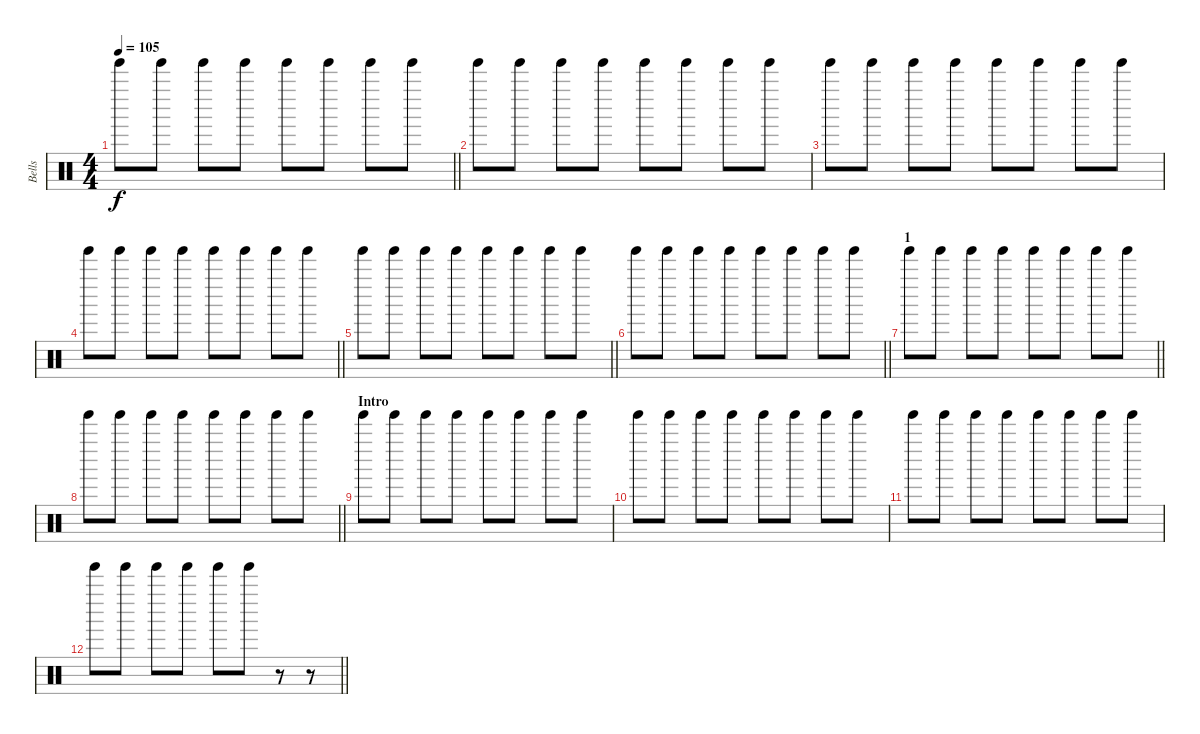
\track ("Bells" "Bells") {instrument percussion}
\staff {score}
\articulation defaults
\ts (4 4)
\tempo 105
\clef neutral
\barLineRight lightlight
\ks c "Tinkle Bell (hit)".8{dy f} "Tinkle Bell (hit)".8 "Tinkle Bell (hit)".8 "Tinkle Bell (hit)".8 "Tinkle Bell (hit)".8 "Tinkle Bell (hit)".8 "Tinkle Bell (hit)".8 "Tinkle Bell (hit)".8
|
"Tinkle Bell (hit)".8 "Tinkle Bell (hit)".8 "Tinkle Bell (hit)".8 "Tinkle Bell (hit)".8 "Tinkle Bell (hit)".8 "Tinkle Bell (hit)".8 "Tinkle Bell (hit)".8 "Tinkle Bell (hit)".8 |
"Tinkle Bell (hit)".8 "Tinkle Bell (hit)".8 "Tinkle Bell (hit)".8 "Tinkle Bell (hit)".8 "Tinkle Bell (hit)".8 "Tinkle Bell (hit)".8 "Tinkle Bell (hit)".8 "Tinkle Bell (hit)".8 |
\barLineRight lightlight "Tinkle Bell (hit)".8 "Tinkle Bell (hit)".8 "Tinkle Bell (hit)".8 "Tinkle Bell (hit)".8 "Tinkle Bell (hit)".8 "Tinkle Bell (hit)".8 "Tinkle Bell (hit)".8 "Tinkle Bell (hit)".8
|
\barLineRight lightlight "Tinkle Bell (hit)".8 "Tinkle Bell (hit)".8 "Tinkle Bell (hit)".8 "Tinkle Bell (hit)".8 "Tinkle Bell (hit)".8 "Tinkle Bell (hit)".8 "Tinkle Bell (hit)".8 "Tinkle Bell (hit)".8
|
\barLineRight lightlight "Tinkle Bell (hit)".8 "Tinkle Bell (hit)".8 "Tinkle Bell (hit)".8 "Tinkle Bell (hit)".8 "Tinkle Bell (hit)".8 "Tinkle Bell (hit)".8 "Tinkle Bell (hit)".8 "Tinkle Bell (hit)".8
|
\section ("" "1")
\barLineRight lightlight "Tinkle Bell (hit)".8 "Tinkle Bell (hit)".8 "Tinkle Bell (hit)".8 "Tinkle Bell (hit)".8 "Tinkle Bell (hit)".8 "Tinkle Bell (hit)".8 "Tinkle Bell (hit)".8 "Tinkle Bell (hit)".8
|
\barLineRight lightlight "Tinkle Bell (hit)".8 "Tinkle Bell (hit)".8 "Tinkle Bell (hit)".8 "Tinkle Bell (hit)".8 "Tinkle Bell (hit)".8 "Tinkle Bell (hit)".8 "Tinkle Bell (hit)".8 "Tinkle Bell (hit)".8
|
\section ("" "Intro")
"Tinkle Bell (hit)".8 "Tinkle Bell (hit)".8 "Tinkle Bell (hit)".8 "Tinkle Bell (hit)".8 "Tinkle Bell (hit)".8 "Tinkle Bell (hit)".8 "Tinkle Bell (hit)".8 "Tinkle Bell (hit)".8 |
"Tinkle Bell (hit)".8 "Tinkle Bell (hit)".8 "Tinkle Bell (hit)".8 "Tinkle Bell (hit)".8 "Tinkle Bell (hit)".8 "Tinkle Bell (hit)".8 "Tinkle Bell (hit)".8 "Tinkle Bell (hit)".8 |
"Tinkle Bell (hit)".8 "Tinkle Bell (hit)".8 "Tinkle Bell (hit)".8 "Tinkle Bell (hit)".8 "Tinkle Bell (hit)".8 "Tinkle Bell (hit)".8 "Tinkle Bell (hit)".8 "Tinkle Bell (hit)".8 |
\barLineRight lightlight "Tinkle Bell (hit)".8 "Tinkle Bell (hit)".8 "Tinkle Bell (hit)".8 "Tinkle Bell (hit)".8 "Tinkle Bell (hit)".8 "Tinkle Bell (hit)".8
r.8 r.8
